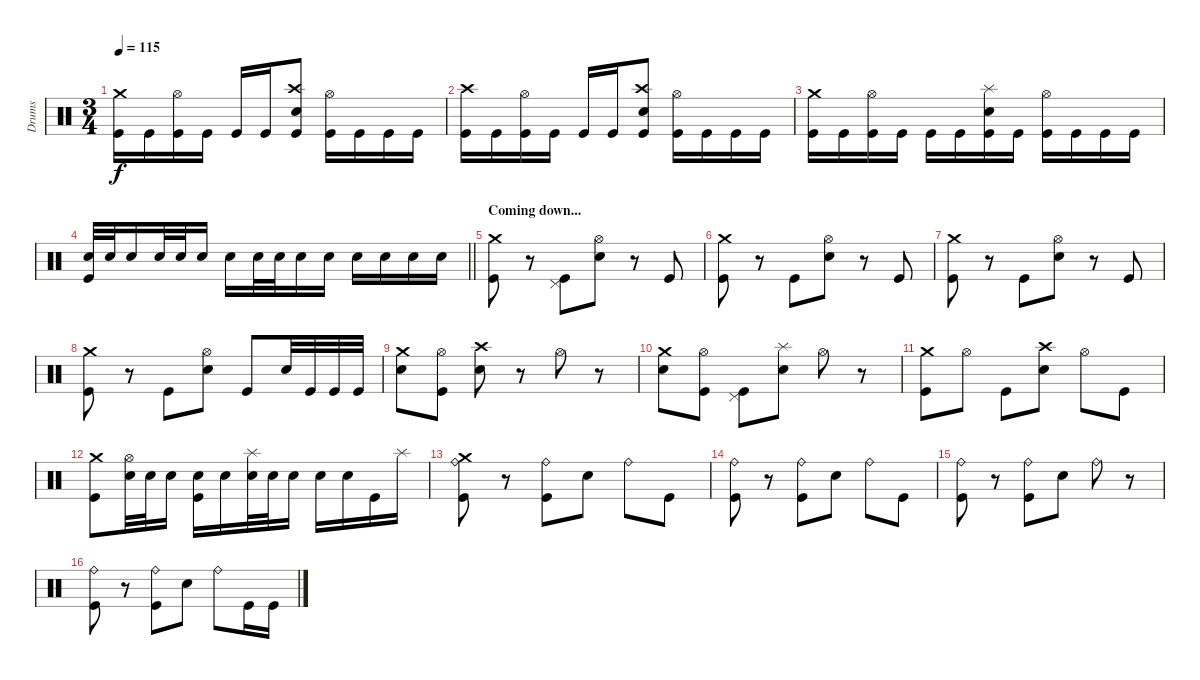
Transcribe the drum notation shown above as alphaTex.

\track ("Drums" "Drums") {instrument percussion}
\staff {score}
\articulation defaults
\ts (3 4)
\tempo 115
\clef neutral
\ks c
("Crash medium (hit)" "Kick (hit)").16{dy f} "Kick (hit)".16 ("Hi-Hat (open)" "Kick (hit)").16 "Kick (hit)".16 "Kick (hit)".16 "Kick (hit)".16 ("Crash high (hit)" "Electric Snare (hit)" "Kick (hit)").8 ("Hi-Hat (open)" "Kick (hit)").16 "Kick (hit)".16 "Kick (hit)".16 "Kick (hit)".16 |
("Crash high (hit)" "Kick (hit)").16 "Kick (hit)".16 ("Hi-Hat (open)" "Kick (hit)").16 "Kick (hit)".16 "Kick (hit)".16 "Kick (hit)".16 ("Crash high (hit)" "Electric Snare (hit)" "Kick (hit)").8 ("Hi-Hat (open)" "Kick (hit)").16 "Kick (hit)".16 "Kick (hit)".16 "Kick (hit)".16 |
("Crash medium (hit)" "Kick (hit)").16 "Kick (hit)".16 ("Hi-Hat (open)" "Kick (hit)").16 "Kick (hit)".16 "Kick (hit)".16 "Kick (hit)".16 ("Splash (hit)" "Electric Snare (hit)" "Kick (hit)").16 "Kick (hit)".16 ("Hi-Hat (open)" "Kick (hit)").16 "Kick (hit)".16 "Kick (hit)".16 "Kick (hit)".16 |
\barLineRight lightlight
("Electric Snare (hit)" "Kick (hit)").32 "Electric Snare (hit)".32 "Electric Snare (hit)".16 "Electric Snare (hit)".32 "Electric Snare (hit)".32 "Electric Snare (hit)".16 "Electric Snare (hit)".16 "Electric Snare (hit)".32 "Electric Snare (hit)".32 "Electric Snare (hit)".16 "Electric Snare (hit)".16 "Electric Snare (hit)".16 "Electric Snare (hit)".16 "Electric Snare (hit)".16 "Electric Snare (hit)".16 |
\section ("" "Coming down...")
("Crash medium (hit)" "Kick (hit)").8 r.8 ("Pedal Hi-Hat (hit)" "Kick (hit)").8 ("Hi-Hat (open)" "Electric Snare (hit)").8 r.8 "Kick (hit)".8 |
("Crash medium (hit)" "Kick (hit)").8 r.8 "Kick (hit)".8 ("Hi-Hat (open)" "Electric Snare (hit)").8 r.8 "Kick (hit)".8 |
("Crash medium (hit)" "Kick (hit)").8 r.8 "Kick (hit)".8 ("Electric Snare (hit)" "Hi-Hat (open)").8 r.8 "Kick (hit)".8 |
("Crash medium (hit)" "Kick (hit)").8 r.8 "Kick (hit)".8 ("Electric Snare (hit)" "Hi-Hat (open)").8 "Kick (hit)".8 "Electric Snare (hit)".32 "Kick (hit)".32 "Kick (hit)".32 "Kick (hit)".32 |
("Crash medium (hit)" "Electric Snare (hit)").8 ("Hi-Hat (open)" "Kick (hit)").8 ("Crash high (hit)" "Electric Snare (hit)").8 r.8 "Hi-Hat (open)".8 r.8 |
("Crash medium (hit)" "Electric Snare (hit)").8 ("Hi-Hat (open)" "Kick (hit)").8 ("Pedal Hi-Hat (hit)" "Kick (hit)").8 ("Splash (hit)" "Electric Snare (hit)").8 "Hi-Hat (open)".8 r.8 |
("Crash medium (hit)" "Kick (hit)").8 "Hi-Hat (open)".8 "Kick (hit)".8 ("Crash high (hit)" "Electric Snare (hit)").8 "Hi-Hat (open)".8 "Kick (hit)".8 |
("Crash medium (hit)" "Kick (hit)").8 ("Hi-Hat (open)" "Electric Snare (hit)").32 "Electric Snare (hit)".32 "Electric Snare (hit)".16 ("Electric Snare (hit)" "Kick (hit)").16 "Electric Snare (hit)".16 ("Splash (hit)" "Electric Snare (hit)").32 "Electric Snare (hit)".32 "Electric Snare (hit)".16 "Electric Snare (hit)".16 "Electric Snare (hit)".16 "Kick (hit)".16 "Splash (hit)".16 |
("Crash medium (hit)" "Ride (bell)" "Kick (hit)").8 r.8 ("Ride (bell)" "Kick (hit)").8 "Electric Snare (hit)".8 "Ride (bell)".8 "Kick (hit)".8 |
("Ride (bell)" "Kick (hit)").8 r.8 ("Ride (bell)" "Kick (hit)").8 "Electric Snare (hit)".8 "Ride (bell)".8 "Kick (hit)".8 |
("Ride (bell)" "Kick (hit)").8 r.8 ("Ride (bell)" "Kick (hit)").8 "Electric Snare (hit)".8 "Ride (bell)".8 r.8 |
("Ride (bell)" "Kick (hit)").8 r.8 ("Ride (bell)" "Kick (hit)").8 "Electric Snare (hit)".8 "Ride (bell)".8 "Kick (hit)".16 "Kick (hit)".16
